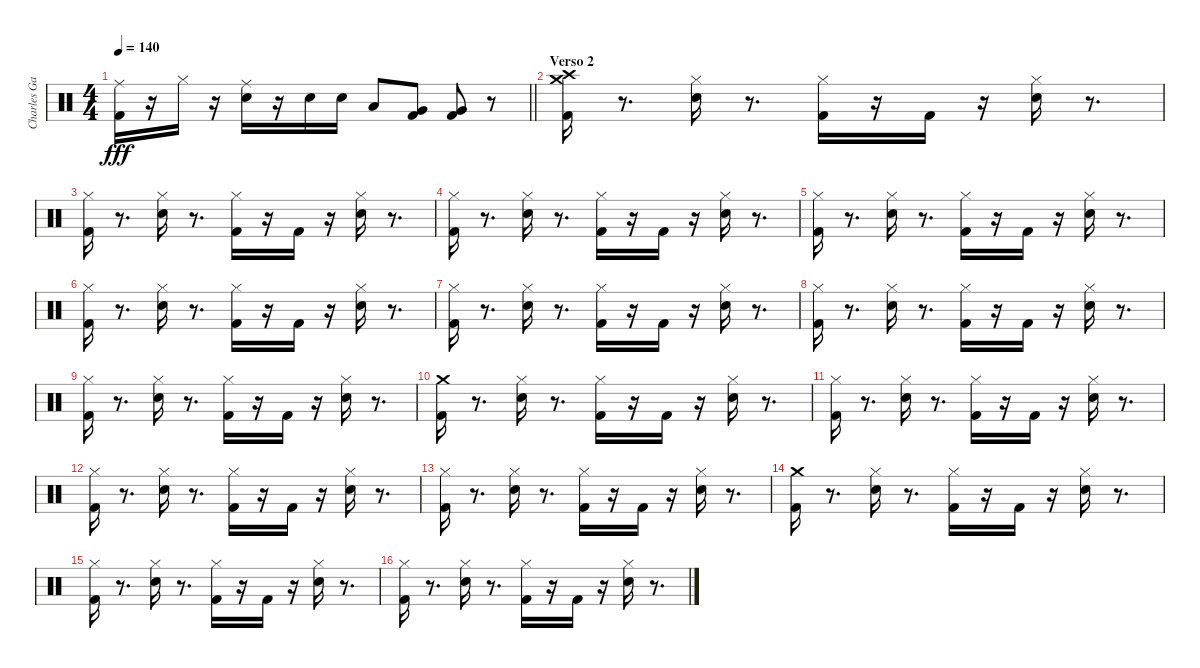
\track ("Charles Gavin" "Charles Ga") {instrument percussion}
\staff {score}
\articulation defaults
\ts (4 4)
\tempo 140
\clef neutral
\barLineRight lightlight
\ks c
("Ride (middle)" "Kick (hit) 2").16{dy fff} r.16 "Hi-Hat (closed)".16 r.16 ("Ride (middle)" "Snare (hit) 2").16 r.16 "Snare (hit) 2".16 "Snare (hit) 2".16 "Low Tom (hit)".8 ("Kick (hit) 2" "Very Low Tom (hit)").8 ("Kick (hit) 2" "Very Low Tom (hit)").8 r.8 |
\section ("" "Verso 2")
("Crash high (hit)" "Kick (hit) 2" "Crash medium (hit)").16 r.8{d} ("Hi-Hat (closed)" "Snare (hit) 2").16 r.8{d} ("Kick (hit) 2" "Hi-Hat (closed)").16 r.16 "Kick (hit) 2".16 r.16 ("Hi-Hat (closed)" "Snare (hit) 2").16 r.8{d} |
("Hi-Hat (closed)" "Kick (hit) 2").16 r.8{d} ("Hi-Hat (closed)" "Snare (hit) 2").16 r.8{d} ("Kick (hit) 2" "Hi-Hat (closed)").16 r.16 "Kick (hit) 2".16 r.16 ("Hi-Hat (closed)" "Snare (hit) 2").16 r.8{d} |
("Hi-Hat (closed)" "Kick (hit) 2").16 r.8{d} ("Hi-Hat (closed)" "Snare (hit) 2").16 r.8{d} ("Kick (hit) 2" "Hi-Hat (closed)").16 r.16 "Kick (hit) 2".16 r.16 ("Hi-Hat (closed)" "Snare (hit) 2").16 r.8{d} |
("Hi-Hat (closed)" "Kick (hit) 2").16 r.8{d} ("Hi-Hat (closed)" "Snare (hit) 2").16 r.8{d} ("Kick (hit) 2" "Hi-Hat (closed)").16 r.16 "Kick (hit) 2".16 r.16 ("Hi-Hat (closed)" "Snare (hit) 2").16 r.8{d} |
("Hi-Hat (closed)" "Kick (hit) 2").16 r.8{d} ("Hi-Hat (closed)" "Snare (hit) 2").16 r.8{d} ("Kick (hit) 2" "Hi-Hat (closed)").16 r.16 "Kick (hit) 2".16 r.16 ("Hi-Hat (closed)" "Snare (hit) 2").16 r.8{d} |
("Hi-Hat (closed)" "Kick (hit) 2").16 r.8{d} ("Hi-Hat (closed)" "Snare (hit) 2").16 r.8{d} ("Kick (hit) 2" "Hi-Hat (closed)").16 r.16 "Kick (hit) 2".16 r.16 ("Hi-Hat (closed)" "Snare (hit) 2").16 r.8{d} |
("Hi-Hat (closed)" "Kick (hit) 2").16 r.8{d} ("Hi-Hat (closed)" "Snare (hit) 2").16 r.8{d} ("Kick (hit) 2" "Hi-Hat (closed)").16 r.16 "Kick (hit) 2".16 r.16 ("Hi-Hat (closed)" "Snare (hit) 2").16 r.8{d} |
("Hi-Hat (closed)" "Kick (hit) 2").16 r.8{d} ("Hi-Hat (closed)" "Snare (hit) 2").16 r.8{d} ("Kick (hit) 2" "Hi-Hat (closed)").16 r.16 "Kick (hit) 2".16 r.16 ("Hi-Hat (closed)" "Snare (hit) 2").16 r.8{d} |
("Crash medium (hit)" "Kick (hit) 2").16 r.8{d} ("Hi-Hat (closed)" "Snare (hit) 2").16 r.8{d} ("Kick (hit) 2" "Hi-Hat (closed)").16 r.16 "Kick (hit) 2".16 r.16 ("Hi-Hat (closed)" "Snare (hit) 2").16 r.8{d} |
("Hi-Hat (closed)" "Kick (hit) 2").16 r.8{d} ("Hi-Hat (closed)" "Snare (hit) 2").16 r.8{d} ("Kick (hit) 2" "Hi-Hat (closed)").16 r.16 "Kick (hit) 2".16 r.16 ("Hi-Hat (closed)" "Snare (hit) 2").16 r.8{d} |
("Hi-Hat (closed)" "Kick (hit) 2").16 r.8{d} ("Hi-Hat (closed)" "Snare (hit) 2").16 r.8{d} ("Kick (hit) 2" "Hi-Hat (closed)").16 r.16 "Kick (hit) 2".16 r.16 ("Hi-Hat (closed)" "Snare (hit) 2").16 r.8{d} |
("Hi-Hat (closed)" "Kick (hit) 2").16 r.8{d} ("Hi-Hat (closed)" "Snare (hit) 2").16 r.8{d} ("Kick (hit) 2" "Hi-Hat (closed)").16 r.16 "Kick (hit) 2".16 r.16 ("Hi-Hat (closed)" "Snare (hit) 2").16 r.8{d} |
("Crash medium (hit)" "Kick (hit) 2").16 r.8{d} ("Hi-Hat (closed)" "Snare (hit) 2").16 r.8{d} ("Kick (hit) 2" "Hi-Hat (closed)").16 r.16 "Kick (hit) 2".16 r.16 ("Hi-Hat (closed)" "Snare (hit) 2").16 r.8{d} |
("Hi-Hat (closed)" "Kick (hit) 2").16 r.8{d} ("Hi-Hat (closed)" "Snare (hit) 2").16 r.8{d} ("Kick (hit) 2" "Hi-Hat (closed)").16 r.16 "Kick (hit) 2".16 r.16 ("Hi-Hat (closed)" "Snare (hit) 2").16 r.8{d} |
("Hi-Hat (closed)" "Kick (hit) 2").16 r.8{d} ("Hi-Hat (closed)" "Snare (hit) 2").16 r.8{d} ("Kick (hit) 2" "Hi-Hat (closed)").16 r.16 "Kick (hit) 2".16 r.16 ("Hi-Hat (closed)" "Snare (hit) 2").16 r.8{d}
